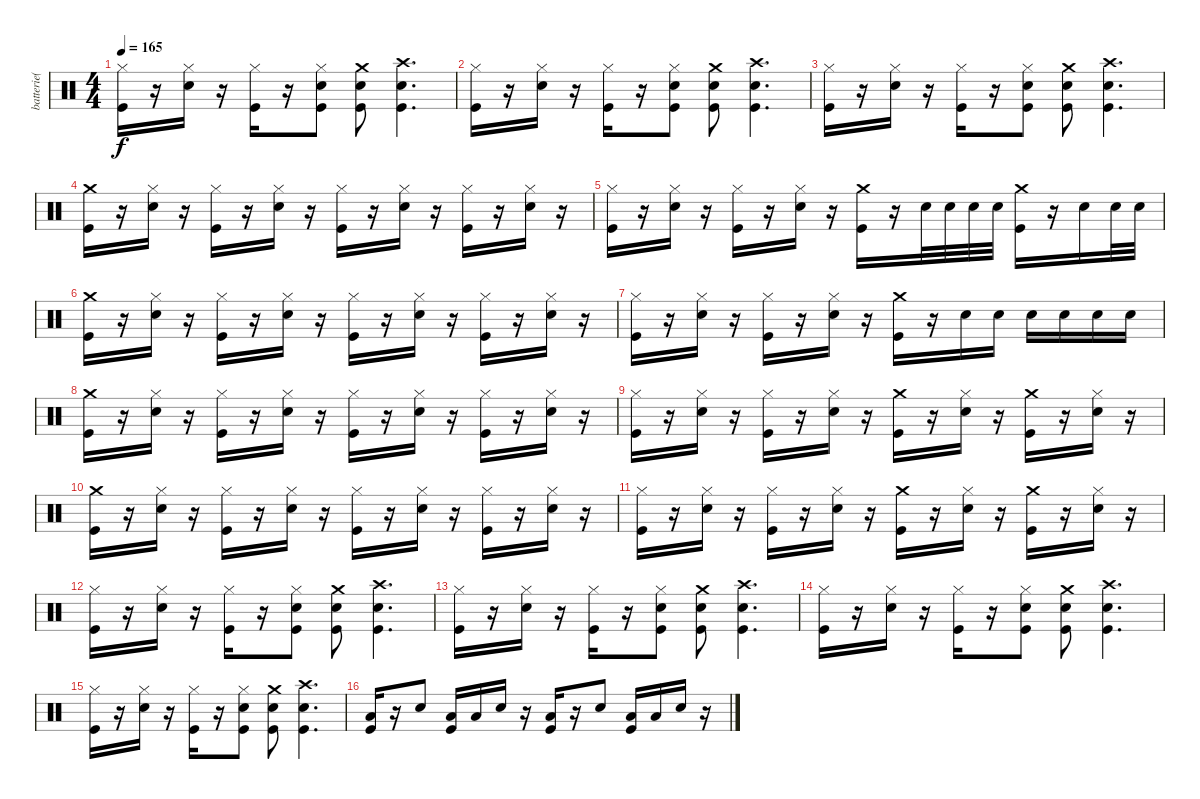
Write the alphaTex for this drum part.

\track ("batterie( Shawn )" "batterie( ") {instrument percussion}
\staff {score}
\articulation defaults
\ts (4 4)
\tempo 165
\clef neutral
\ks c
("Hi-Hat (closed)" "Kick (hit)").16{dy f} r.16 ("Hi-Hat (closed)" "Snare (hit) 2").16 r.16 ("Hi-Hat (closed)" "Kick (hit)").16 r.16 ("Hi-Hat (closed)" "Snare (hit) 2" "Kick (hit)").8 ("Crash medium (hit)" "Snare (hit) 2" "Kick (hit)").8 ("Crash high (hit)" "Snare (hit) 2" "Kick (hit)").4{d} |
("Hi-Hat (closed)" "Kick (hit)").16 r.16 ("Hi-Hat (closed)" "Snare (hit) 2").16 r.16 ("Hi-Hat (closed)" "Kick (hit)").16 r.16 ("Hi-Hat (closed)" "Snare (hit) 2" "Kick (hit)").8 ("Crash medium (hit)" "Snare (hit) 2" "Kick (hit)").8 ("Crash high (hit)" "Snare (hit) 2" "Kick (hit)").4{d} |
("Hi-Hat (closed)" "Kick (hit)").16 r.16 ("Hi-Hat (closed)" "Snare (hit) 2").16 r.16 ("Hi-Hat (closed)" "Kick (hit)").16 r.16 ("Hi-Hat (closed)" "Snare (hit) 2" "Kick (hit)").8 ("Crash medium (hit)" "Snare (hit) 2" "Kick (hit)").8 ("Crash high (hit)" "Snare (hit) 2" "Kick (hit)").4{d} |
("Crash medium (hit)" "Kick (hit)").16 r.16 ("Hi-Hat (closed)" "Snare (hit) 2").16 r.16 ("Hi-Hat (closed)" "Kick (hit)").16 r.16 ("Hi-Hat (closed)" "Snare (hit) 2").16 r.16 ("Hi-Hat (closed)" "Kick (hit)").16 r.16 ("Hi-Hat (closed)" "Snare (hit) 2").16 r.16 ("Hi-Hat (closed)" "Kick (hit)").16 r.16 ("Hi-Hat (closed)" "Snare (hit) 2").16 r.16 |
("Hi-Hat (closed)" "Kick (hit)").16 r.16 ("Hi-Hat (closed)" "Snare (hit) 2").16 r.16 ("Hi-Hat (closed)" "Kick (hit)").16 r.16 ("Hi-Hat (closed)" "Snare (hit) 2").16 r.16 ("Crash medium (hit)" "Kick (hit)").16 r.16 "Snare (hit) 2".32 "Snare (hit) 2".32 "Snare (hit) 2".32 "Snare (hit) 2".32 ("Crash medium (hit)" "Kick (hit)").16 r.16 "Snare (hit) 2".16 "Snare (hit) 2".32 "Snare (hit) 2".32 |
("Crash medium (hit)" "Kick (hit)").16 r.16 ("Hi-Hat (closed)" "Snare (hit) 2").16 r.16 ("Hi-Hat (closed)" "Kick (hit)").16 r.16 ("Hi-Hat (closed)" "Snare (hit) 2").16 r.16 ("Hi-Hat (closed)" "Kick (hit)").16 r.16 ("Hi-Hat (closed)" "Snare (hit) 2").16 r.16 ("Hi-Hat (closed)" "Kick (hit)").16 r.16 ("Hi-Hat (closed)" "Snare (hit) 2").16 r.16 |
("Hi-Hat (closed)" "Kick (hit)").16 r.16 ("Hi-Hat (closed)" "Snare (hit) 2").16 r.16 ("Hi-Hat (closed)" "Kick (hit)").16 r.16 ("Hi-Hat (closed)" "Snare (hit) 2").16 r.16 ("Crash medium (hit)" "Kick (hit)").16 r.16 "Snare (hit) 2".16 "Snare (hit) 2".16 "Snare (hit) 2".16 "Snare (hit) 2".16 "Snare (hit) 2".16 "Snare (hit) 2".16 |
("Crash medium (hit)" "Kick (hit)").16 r.16 ("Hi-Hat (closed)" "Snare (hit) 2").16 r.16 ("Hi-Hat (closed)" "Kick (hit)").16 r.16 ("Hi-Hat (closed)" "Snare (hit) 2").16 r.16 ("Hi-Hat (closed)" "Kick (hit)").16 r.16 ("Hi-Hat (closed)" "Snare (hit) 2").16 r.16 ("Hi-Hat (closed)" "Kick (hit)").16 r.16 ("Hi-Hat (closed)" "Snare (hit) 2").16 r.16 |
("Hi-Hat (closed)" "Kick (hit)").16 r.16 ("Hi-Hat (closed)" "Snare (hit) 2").16 r.16 ("Hi-Hat (closed)" "Kick (hit)").16 r.16 ("Hi-Hat (closed)" "Snare (hit) 2").16 r.16 ("Crash medium (hit)" "Kick (hit)").16 r.16 ("Hi-Hat (closed)" "Snare (hit) 2").16 r.16 ("Crash medium (hit)" "Kick (hit)").16 r.16 ("Hi-Hat (closed)" "Snare (hit) 2").16 r.16 |
("Crash medium (hit)" "Kick (hit)").16 r.16 ("Hi-Hat (closed)" "Snare (hit) 2").16 r.16 ("Hi-Hat (closed)" "Kick (hit)").16 r.16 ("Hi-Hat (closed)" "Snare (hit) 2").16 r.16 ("Hi-Hat (closed)" "Kick (hit)").16 r.16 ("Hi-Hat (closed)" "Snare (hit) 2").16 r.16 ("Hi-Hat (closed)" "Kick (hit)").16 r.16 ("Hi-Hat (closed)" "Snare (hit) 2").16 r.16 |
("Hi-Hat (closed)" "Kick (hit)").16 r.16 ("Hi-Hat (closed)" "Snare (hit) 2").16 r.16 ("Hi-Hat (closed)" "Kick (hit)").16 r.16 ("Hi-Hat (closed)" "Snare (hit) 2").16 r.16 ("Crash medium (hit)" "Kick (hit)").16 r.16 ("Hi-Hat (closed)" "Snare (hit) 2").16 r.16 ("Crash medium (hit)" "Kick (hit)").16 r.16 ("Hi-Hat (closed)" "Snare (hit) 2").16 r.16 |
("Hi-Hat (closed)" "Kick (hit)").16 r.16 ("Hi-Hat (closed)" "Snare (hit) 2").16 r.16 ("Hi-Hat (closed)" "Kick (hit)").16 r.16 ("Hi-Hat (closed)" "Snare (hit) 2" "Kick (hit)").8 ("Crash medium (hit)" "Snare (hit) 2" "Kick (hit)").8 ("Crash high (hit)" "Snare (hit) 2" "Kick (hit)").4{d} |
("Hi-Hat (closed)" "Kick (hit)").16 r.16 ("Hi-Hat (closed)" "Snare (hit) 2").16 r.16 ("Hi-Hat (closed)" "Kick (hit)").16 r.16 ("Hi-Hat (closed)" "Snare (hit) 2" "Kick (hit)").8 ("Crash medium (hit)" "Snare (hit) 2" "Kick (hit)").8 ("Crash high (hit)" "Snare (hit) 2" "Kick (hit)").4{d} |
("Hi-Hat (closed)" "Kick (hit)").16 r.16 ("Hi-Hat (closed)" "Snare (hit) 2").16 r.16 ("Hi-Hat (closed)" "Kick (hit)").16 r.16 ("Hi-Hat (closed)" "Snare (hit) 2" "Kick (hit)").8 ("Crash medium (hit)" "Snare (hit) 2" "Kick (hit)").8 ("Crash high (hit)" "Snare (hit) 2" "Kick (hit)").4{d} |
("Hi-Hat (closed)" "Kick (hit)").16 r.16 ("Hi-Hat (closed)" "Snare (hit) 2").16 r.16 ("Hi-Hat (closed)" "Kick (hit)").16 r.16 ("Hi-Hat (closed)" "Snare (hit) 2" "Kick (hit)").8 ("Crash medium (hit)" "Snare (hit) 2" "Kick (hit)").8 ("Crash high (hit)" "Snare (hit) 2" "Kick (hit)").4{d} |
("Low Floor Tom (hit)" "Kick (hit)").16 r.16 "Snare (hit) 2".8 ("Low Floor Tom (hit)" "Kick (hit)").16 "Low Floor Tom (hit)".16 "Snare (hit) 2".16 r.16 ("Low Floor Tom (hit)" "Kick (hit)").16 r.16 "Snare (hit) 2".8 ("Low Floor Tom (hit)" "Kick (hit)").16 "Low Floor Tom (hit)".16 "Snare (hit) 2".16 r.16
